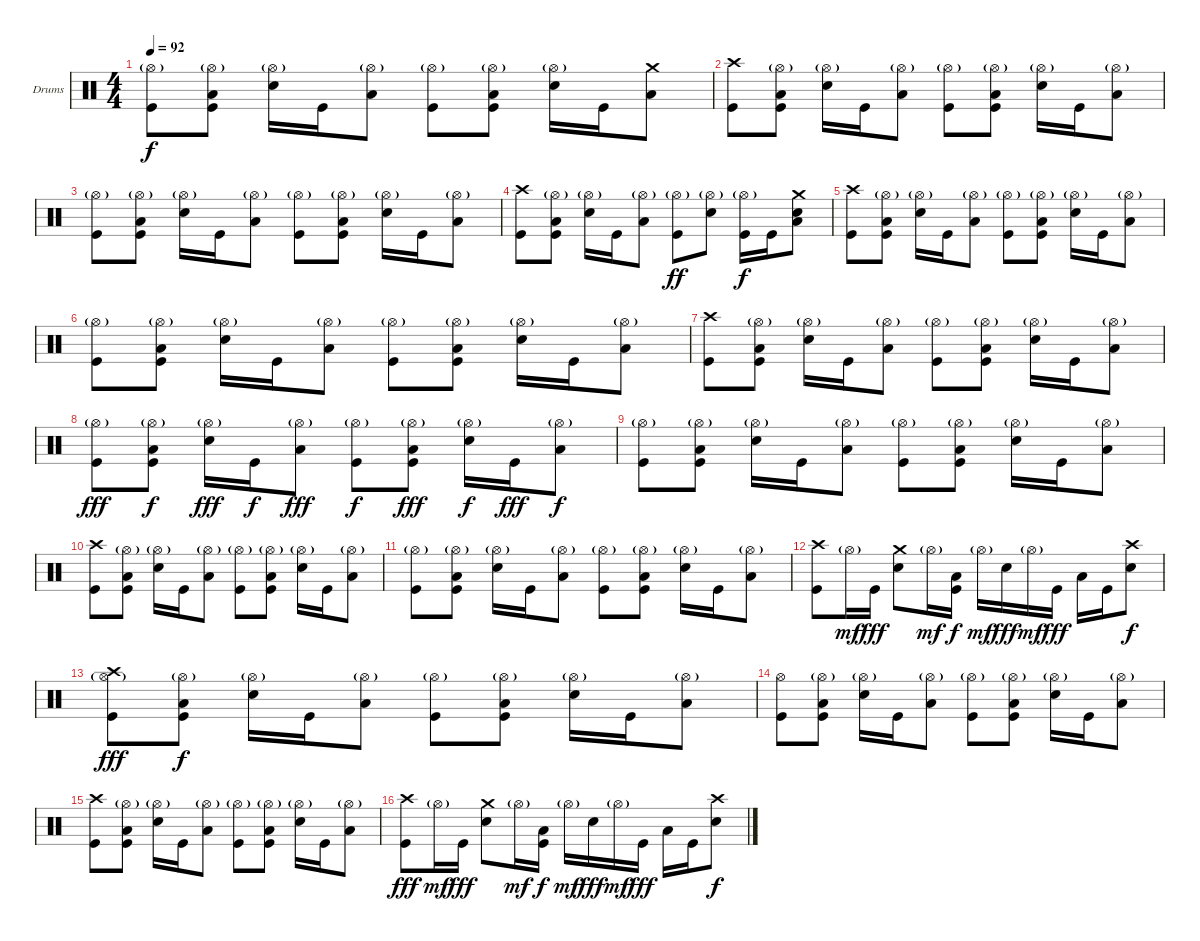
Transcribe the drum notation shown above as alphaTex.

\defaultSystemsLayout 4
\bracketExtendMode groupsimilarinstruments
\firstSystemTrackNameOrientation horizontal
\otherSystemsTrackNameOrientation horizontal
\track ("Drumkit" "Drums") {instrument percussion}
\staff {score}
\articulation defaults
\ts (4 4)
\tempo 92
\clef neutral
\ks c
("Hi-Hat (open)"{g} "Kick (hit)").8{dy f} ("Hi-Hat (open)"{g} "Low Tom (hit)" "Kick (hit)").8 ("Hi-Hat (open)"{g} "Snare (hit) 2").16 "Kick (hit)".16 ("Hi-Hat (open)"{g} "Low Tom (hit)").8 ("Hi-Hat (open)"{g} "Kick (hit)").8 ("Hi-Hat (open)"{g} "Low Tom (hit)" "Kick (hit)").8 ("Hi-Hat (open)"{g} "Snare (hit) 2").16 "Kick (hit)".16 ("Low Tom (hit)" "Crash medium (hit)").8 |
("Kick (hit)" "Crash high (hit)").8 ("Hi-Hat (open)"{g} "Low Tom (hit)" "Kick (hit)").8 ("Hi-Hat (open)"{g} "Snare (hit) 2").16 "Kick (hit)".16 ("Hi-Hat (open)"{g} "Low Tom (hit)").8 ("Hi-Hat (open)"{g} "Kick (hit)").8 ("Hi-Hat (open)"{g} "Low Tom (hit)" "Kick (hit)").8 ("Hi-Hat (open)"{g} "Snare (hit) 2").16 "Kick (hit)".16 ("Hi-Hat (open)"{g} "Low Tom (hit)").8 |
("Hi-Hat (open)"{g} "Kick (hit)").8 ("Hi-Hat (open)"{g} "Low Tom (hit)" "Kick (hit)").8 ("Hi-Hat (open)"{g} "Snare (hit) 2").16 "Kick (hit)".16 ("Hi-Hat (open)"{g} "Low Tom (hit)").8 ("Hi-Hat (open)"{g} "Kick (hit)").8 ("Hi-Hat (open)"{g} "Low Tom (hit)" "Kick (hit)").8 ("Hi-Hat (open)"{g} "Snare (hit) 2").16 "Kick (hit)".16 ("Hi-Hat (open)"{g} "Low Tom (hit)").8 |
("Kick (hit)" "Crash high (hit)").8 ("Hi-Hat (open)"{g} "Low Tom (hit)" "Kick (hit)").8 ("Hi-Hat (open)"{g} "Snare (hit) 2").16 "Kick (hit)".16 ("Hi-Hat (open)"{g} "Low Tom (hit)").8 ("Hi-Hat (open)"{g} "Kick (hit)").8{dy ff} ("Hi-Hat (open)"{g} "Snare (hit) 2").8 ("Hi-Hat (open)"{g} "Kick (hit)").16{dy f} "Kick (hit)".16 ("Low Tom (hit)" "Snare (hit) 2" "Crash medium (hit)").8 |
("Kick (hit)" "Crash high (hit)").8 ("Hi-Hat (open)"{g} "Low Tom (hit)" "Kick (hit)").8 ("Hi-Hat (open)"{g} "Snare (hit) 2").16 "Kick (hit)".16 ("Hi-Hat (open)"{g} "Low Tom (hit)").8 ("Hi-Hat (open)"{g} "Kick (hit)").8 ("Hi-Hat (open)"{g} "Low Tom (hit)" "Kick (hit)").8 ("Hi-Hat (open)"{g} "Snare (hit) 2").16 "Kick (hit)".16 ("Hi-Hat (open)"{g} "Low Tom (hit)").8 |
("Hi-Hat (open)"{g} "Kick (hit)").8 ("Hi-Hat (open)"{g} "Low Tom (hit)" "Kick (hit)").8 ("Hi-Hat (open)"{g} "Snare (hit) 2").16 "Kick (hit)".16 ("Hi-Hat (open)"{g} "Low Tom (hit)").8 ("Hi-Hat (open)"{g} "Kick (hit)").8 ("Hi-Hat (open)"{g} "Low Tom (hit)" "Kick (hit)").8 ("Hi-Hat (open)"{g} "Snare (hit) 2").16 "Kick (hit)".16 ("Hi-Hat (open)"{g} "Low Tom (hit)").8 |
("Kick (hit)" "Crash high (hit)").8 ("Hi-Hat (open)"{g} "Low Tom (hit)" "Kick (hit)").8 ("Hi-Hat (open)"{g} "Snare (hit) 2").16 "Kick (hit)".16 ("Hi-Hat (open)"{g} "Low Tom (hit)").8 ("Hi-Hat (open)"{g} "Kick (hit)").8 ("Hi-Hat (open)"{g} "Low Tom (hit)" "Kick (hit)").8 ("Hi-Hat (open)"{g} "Snare (hit) 2").16 "Kick (hit)".16 ("Hi-Hat (open)"{g} "Low Tom (hit)").8 |
("Hi-Hat (open)"{g} "Kick (hit)").8{dy fff} ("Hi-Hat (open)"{g} "Low Tom (hit)" "Kick (hit)").8{dy f} ("Hi-Hat (open)"{g} "Snare (hit) 2").16{dy fff} "Kick (hit)".16{dy f} ("Hi-Hat (open)"{g} "Low Tom (hit)").8{dy fff} ("Hi-Hat (open)"{g} "Kick (hit)").8{dy f} ("Hi-Hat (open)"{g} "Low Tom (hit)" "Kick (hit)").8{dy fff} ("Hi-Hat (open)"{g} "Snare (hit) 2").16{dy f} "Kick (hit)".16{dy fff} ("Hi-Hat (open)"{g} "Low Tom (hit)").8{dy f} |
("Hi-Hat (open)"{g} "Kick (hit)").8 ("Hi-Hat (open)"{g} "Low Tom (hit)" "Kick (hit)").8 ("Hi-Hat (open)"{g} "Snare (hit) 2").16 "Kick (hit)".16 ("Hi-Hat (open)"{g} "Low Tom (hit)").8 ("Hi-Hat (open)"{g} "Kick (hit)").8 ("Hi-Hat (open)"{g} "Low Tom (hit)" "Kick (hit)").8 ("Hi-Hat (open)"{g} "Snare (hit) 2").16 "Kick (hit)".16 ("Hi-Hat (open)"{g} "Low Tom (hit)").8 |
("Kick (hit)" "Crash high (hit)").8 ("Hi-Hat (open)"{g} "Low Tom (hit)" "Kick (hit)").8 ("Hi-Hat (open)"{g} "Snare (hit) 2").16 "Kick (hit)".16 ("Hi-Hat (open)"{g} "Low Tom (hit)").8 ("Hi-Hat (open)"{g} "Kick (hit)").8 ("Hi-Hat (open)"{g} "Low Tom (hit)" "Kick (hit)").8 ("Hi-Hat (open)"{g} "Snare (hit) 2").16 "Kick (hit)".16 ("Hi-Hat (open)"{g} "Low Tom (hit)").8 |
("Hi-Hat (open)"{g} "Kick (hit)").8 ("Hi-Hat (open)"{g} "Low Tom (hit)" "Kick (hit)").8 ("Hi-Hat (open)"{g} "Snare (hit) 2").16 "Kick (hit)".16 ("Hi-Hat (open)"{g} "Low Tom (hit)").8 ("Hi-Hat (open)"{g} "Kick (hit)").8 ("Hi-Hat (open)"{g} "Low Tom (hit)" "Kick (hit)").8 ("Hi-Hat (open)"{g} "Snare (hit) 2").16 "Kick (hit)".16 ("Hi-Hat (open)"{g} "Low Tom (hit)").8 |
("Crash high (hit)" "Kick (hit)").8 "Hi-Hat (open)"{g}.16{dy mf} "Kick (hit)".16{dy fff} ("Snare (hit) 2" "Crash medium (hit)").8 "Hi-Hat (open)"{g}.16{dy mf} ("Low Tom (hit)" "Kick (hit)").16{dy f} "Hi-Hat (open)"{g}.16{dy mf} "Snare (hit) 2".16{dy fff} "Hi-Hat (open)"{g}.16{dy mf} "Kick (hit)".16{dy fff} "Low Tom (hit)".16 "Kick (hit)".16 ("Crash high (hit)" "Snare (hit) 2").8{dy f} |
\scale
0.333333 ("Hi-Hat (open)"{g} "Crash high (hit)" "Kick (hit)").8{dy fff} ("Hi-Hat (open)"{g} "Low Tom (hit)" "Kick (hit)").8{dy f} ("Hi-Hat (open)"{g} "Snare (hit) 2").16 "Kick (hit)".16 ("Hi-Hat (open)"{g} "Low Tom (hit)").8 ("Hi-Hat (open)"{g} "Kick (hit)").8 ("Hi-Hat (open)"{g} "Low Tom (hit)" "Kick (hit)").8 ("Hi-Hat (open)"{g} "Snare (hit) 2").16 "Kick (hit)".16 ("Hi-Hat (open)"{g} "Low Tom (hit)").8 |
\scale
0.333333 ("Kick (hit)" "Hi-Hat (open)").8 ("Hi-Hat (open)"{g} "Low Tom (hit)" "Kick (hit)").8 ("Hi-Hat (open)"{g} "Snare (hit) 2").16 "Kick (hit)".16 ("Hi-Hat (open)"{g} "Low Tom (hit)").8 ("Hi-Hat (open)"{g} "Kick (hit)").8 ("Hi-Hat (open)"{g} "Low Tom (hit)" "Kick (hit)").8 ("Hi-Hat (open)"{g} "Snare (hit) 2").16 "Kick (hit)".16 ("Hi-Hat (open)"{g} "Low Tom (hit)").8 |
\scale
0.333333 ("Kick (hit)" "Crash high (hit)").8 ("Hi-Hat (open)"{g} "Low Tom (hit)" "Kick (hit)").8 ("Hi-Hat (open)"{g} "Snare (hit) 2").16 "Kick (hit)".16 ("Hi-Hat (open)"{g} "Low Tom (hit)").8 ("Hi-Hat (open)"{g} "Kick (hit)").8 ("Hi-Hat (open)"{g} "Low Tom (hit)" "Kick (hit)").8 ("Hi-Hat (open)"{g} "Snare (hit) 2").16 "Kick (hit)".16 ("Hi-Hat (open)"{g} "Low Tom (hit)").8 |
\scale
0.333333 ("Crash high (hit)" "Kick (hit)").8{dy fff} "Hi-Hat (open)"{g}.16{dy mf} "Kick (hit)".16{dy fff} ("Snare (hit) 2" "Crash medium (hit)").8 "Hi-Hat (open)"{g}.16{dy mf} ("Low Tom (hit)" "Kick (hit)").16{dy f} "Hi-Hat (open)"{g}.16{dy mf} "Snare (hit) 2".16{dy fff} "Hi-Hat (open)"{g}.16{dy mf} "Kick (hit)".16{dy fff} "Low Tom (hit)".16 "Kick (hit)".16 ("Crash high (hit)" "Snare (hit) 2").8{dy f}
